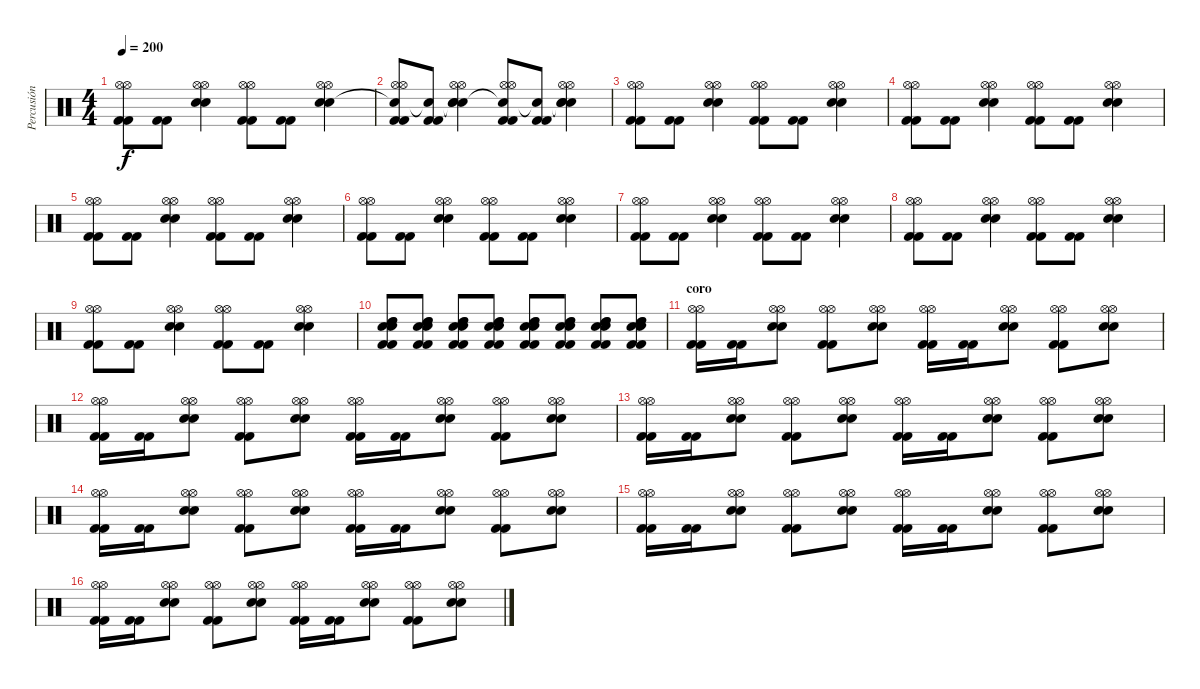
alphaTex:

\track ("Percusión" "Percusión") {instrument percussion}
\staff {score}
\articulation defaults
\ts (4 4)
\tempo 200
\clef neutral
\ks c
("Kick (hit) 2" "Kick (hit) 2" "Hi-Hat (open)" "Hi-Hat (open)").8{dy f} ("Kick (hit) 2" "Kick (hit) 2").8 ("Snare (hit) 2" "Snare (hit) 2" "Hi-Hat (open)" "Hi-Hat (open)").4 ("Kick (hit) 2" "Kick (hit) 2" "Hi-Hat (open)" "Hi-Hat (open)").8 ("Kick (hit) 2" "Kick (hit) 2").8 ("Snare (hit) 2" "Snare (hit) 2" "Hi-Hat (open)" "Hi-Hat (open)").4 |
("Snare (hit)"{t} "Kick (hit) 2" "Kick (hit) 2" "Hi-Hat (open)" "Hi-Hat (open)").8 ("Snare (hit)"{t} "Kick (hit) 2" "Kick (hit) 2").8 ("Snare (hit)"{t} "Snare (hit) 2" "Snare (hit) 2" "Hi-Hat (open)" "Hi-Hat (open)").4 ("Snare (hit)"{t} "Kick (hit) 2" "Kick (hit) 2" "Hi-Hat (open)" "Hi-Hat (open)").8 ("Snare (hit)"{t} "Kick (hit) 2" "Kick (hit) 2").8 ("Snare (hit)"{t} "Snare (hit) 2" "Snare (hit) 2" "Hi-Hat (open)" "Hi-Hat (open)").4 |
("Kick (hit) 2" "Kick (hit) 2" "Hi-Hat (open)" "Hi-Hat (open)").8 ("Kick (hit) 2" "Kick (hit) 2").8 ("Snare (hit) 2" "Snare (hit) 2" "Hi-Hat (open)" "Hi-Hat (open)").4 ("Kick (hit) 2" "Kick (hit) 2" "Hi-Hat (open)" "Hi-Hat (open)").8 ("Kick (hit) 2" "Kick (hit) 2").8 ("Snare (hit) 2" "Snare (hit) 2" "Hi-Hat (open)" "Hi-Hat (open)").4 |
("Kick (hit) 2" "Kick (hit) 2" "Hi-Hat (open)" "Hi-Hat (open)").8 ("Kick (hit) 2" "Kick (hit) 2").8 ("Snare (hit) 2" "Snare (hit) 2" "Hi-Hat (open)" "Hi-Hat (open)").4 ("Kick (hit) 2" "Kick (hit) 2" "Hi-Hat (open)" "Hi-Hat (open)").8 ("Kick (hit) 2" "Kick (hit) 2").8 ("Snare (hit) 2" "Snare (hit) 2" "Hi-Hat (open)" "Hi-Hat (open)").4 |
("Kick (hit) 2" "Kick (hit) 2" "Hi-Hat (open)" "Hi-Hat (open)").8 ("Kick (hit) 2" "Kick (hit) 2").8 ("Snare (hit) 2" "Snare (hit) 2" "Hi-Hat (open)" "Hi-Hat (open)").4 ("Kick (hit) 2" "Kick (hit) 2" "Hi-Hat (open)" "Hi-Hat (open)").8 ("Kick (hit) 2" "Kick (hit) 2").8 ("Snare (hit) 2" "Snare (hit) 2" "Hi-Hat (open)" "Hi-Hat (open)").4 |
("Kick (hit) 2" "Kick (hit) 2" "Hi-Hat (open)" "Hi-Hat (open)").8 ("Kick (hit) 2" "Kick (hit) 2").8 ("Snare (hit) 2" "Snare (hit) 2" "Hi-Hat (open)" "Hi-Hat (open)").4 ("Kick (hit) 2" "Kick (hit) 2" "Hi-Hat (open)" "Hi-Hat (open)").8 ("Kick (hit) 2" "Kick (hit) 2").8 ("Snare (hit) 2" "Snare (hit) 2" "Hi-Hat (open)" "Hi-Hat (open)").4 |
("Kick (hit) 2" "Kick (hit) 2" "Hi-Hat (open)" "Hi-Hat (open)").8 ("Kick (hit) 2" "Kick (hit) 2").8 ("Snare (hit) 2" "Snare (hit) 2" "Hi-Hat (open)" "Hi-Hat (open)").4 ("Kick (hit) 2" "Kick (hit) 2" "Hi-Hat (open)" "Hi-Hat (open)").8 ("Kick (hit) 2" "Kick (hit) 2").8 ("Snare (hit) 2" "Snare (hit) 2" "Hi-Hat (open)" "Hi-Hat (open)").4 |
("Kick (hit) 2" "Kick (hit) 2" "Hi-Hat (open)" "Hi-Hat (open)").8 ("Kick (hit) 2" "Kick (hit) 2").8 ("Snare (hit) 2" "Snare (hit) 2" "Hi-Hat (open)" "Hi-Hat (open)").4 ("Kick (hit) 2" "Kick (hit) 2" "Hi-Hat (open)" "Hi-Hat (open)").8 ("Kick (hit) 2" "Kick (hit) 2").8 ("Snare (hit) 2" "Snare (hit) 2" "Hi-Hat (open)" "Hi-Hat (open)").4 |
("Kick (hit) 2" "Kick (hit) 2" "Hi-Hat (open)" "Hi-Hat (open)").8 ("Kick (hit) 2" "Kick (hit) 2").8 ("Snare (hit) 2" "Snare (hit) 2" "Hi-Hat (open)" "Hi-Hat (open)").4 ("Kick (hit) 2" "Kick (hit) 2" "Hi-Hat (open)" "Hi-Hat (open)").8 ("Kick (hit) 2" "Kick (hit) 2").8 ("Snare (hit) 2" "Snare (hit) 2" "Hi-Hat (open)" "Hi-Hat (open)").4 |
("Snare (hit) 2" "Snare (hit) 2" "High Tom (hit)" "High Tom (hit)" "Kick (hit) 2" "Kick (hit) 2").8 ("Snare (hit) 2" "Snare (hit) 2" "High Tom (hit)" "High Tom (hit)" "Kick (hit) 2" "Kick (hit) 2").8 ("Snare (hit) 2" "Snare (hit) 2" "High Tom (hit)" "High Tom (hit)" "Kick (hit) 2" "Kick (hit) 2").8 ("Snare (hit) 2" "Snare (hit) 2" "High Tom (hit)" "High Tom (hit)" "Kick (hit) 2" "Kick (hit) 2").8 ("Snare (hit) 2" "Snare (hit) 2" "High Tom (hit)" "High Tom (hit)" "Kick (hit) 2" "Kick (hit) 2").8 ("Snare (hit) 2" "Snare (hit) 2" "High Tom (hit)" "High Tom (hit)" "Kick (hit) 2" "Kick (hit) 2").8 ("Snare (hit) 2" "Snare (hit) 2" "High Tom (hit)" "High Tom (hit)" "Kick (hit) 2" "Kick (hit) 2").8 ("Snare (hit) 2" "Snare (hit) 2" "High Tom (hit)" "High Tom (hit)" "Kick (hit) 2" "Kick (hit) 2").8 |
\section ("" "coro")
("Kick (hit) 2" "Kick (hit) 2" "Hi-Hat (open)" "Hi-Hat (open)").16 ("Kick (hit) 2" "Kick (hit) 2").16 ("Snare (hit) 2" "Snare (hit) 2" "Hi-Hat (open)" "Hi-Hat (open)").8 ("Kick (hit) 2" "Kick (hit) 2" "Hi-Hat (open)" "Hi-Hat (open)").8 ("Snare (hit) 2" "Snare (hit) 2" "Hi-Hat (open)" "Hi-Hat (open)").8 ("Kick (hit) 2" "Kick (hit) 2" "Hi-Hat (open)" "Hi-Hat (open)").16 ("Kick (hit) 2" "Kick (hit) 2").16 ("Snare (hit) 2" "Snare (hit) 2" "Hi-Hat (open)" "Hi-Hat (open)").8 ("Kick (hit) 2" "Kick (hit) 2" "Hi-Hat (open)" "Hi-Hat (open)").8 ("Snare (hit) 2" "Snare (hit) 2" "Hi-Hat (open)" "Hi-Hat (open)").8 |
("Kick (hit) 2" "Kick (hit) 2" "Hi-Hat (open)" "Hi-Hat (open)").16 ("Kick (hit) 2" "Kick (hit) 2").16 ("Snare (hit) 2" "Snare (hit) 2" "Hi-Hat (open)" "Hi-Hat (open)").8 ("Kick (hit) 2" "Kick (hit) 2" "Hi-Hat (open)" "Hi-Hat (open)").8 ("Snare (hit) 2" "Snare (hit) 2" "Hi-Hat (open)" "Hi-Hat (open)").8 ("Kick (hit) 2" "Kick (hit) 2" "Hi-Hat (open)" "Hi-Hat (open)").16 ("Kick (hit) 2" "Kick (hit) 2").16 ("Snare (hit) 2" "Snare (hit) 2" "Hi-Hat (open)" "Hi-Hat (open)").8 ("Kick (hit) 2" "Kick (hit) 2" "Hi-Hat (open)" "Hi-Hat (open)").8 ("Snare (hit) 2" "Snare (hit) 2" "Hi-Hat (open)" "Hi-Hat (open)").8 |
("Kick (hit) 2" "Kick (hit) 2" "Hi-Hat (open)" "Hi-Hat (open)").16 ("Kick (hit) 2" "Kick (hit) 2").16 ("Snare (hit) 2" "Snare (hit) 2" "Hi-Hat (open)" "Hi-Hat (open)").8 ("Kick (hit) 2" "Kick (hit) 2" "Hi-Hat (open)" "Hi-Hat (open)").8 ("Snare (hit) 2" "Snare (hit) 2" "Hi-Hat (open)" "Hi-Hat (open)").8 ("Kick (hit) 2" "Kick (hit) 2" "Hi-Hat (open)" "Hi-Hat (open)").16 ("Kick (hit) 2" "Kick (hit) 2").16 ("Snare (hit) 2" "Snare (hit) 2" "Hi-Hat (open)" "Hi-Hat (open)").8 ("Kick (hit) 2" "Kick (hit) 2" "Hi-Hat (open)" "Hi-Hat (open)").8 ("Snare (hit) 2" "Snare (hit) 2" "Hi-Hat (open)" "Hi-Hat (open)").8 |
("Kick (hit) 2" "Kick (hit) 2" "Hi-Hat (open)" "Hi-Hat (open)").16 ("Kick (hit) 2" "Kick (hit) 2").16 ("Snare (hit) 2" "Snare (hit) 2" "Hi-Hat (open)" "Hi-Hat (open)").8 ("Kick (hit) 2" "Kick (hit) 2" "Hi-Hat (open)" "Hi-Hat (open)").8 ("Snare (hit) 2" "Snare (hit) 2" "Hi-Hat (open)" "Hi-Hat (open)").8 ("Kick (hit) 2" "Kick (hit) 2" "Hi-Hat (open)" "Hi-Hat (open)").16 ("Kick (hit) 2" "Kick (hit) 2").16 ("Snare (hit) 2" "Snare (hit) 2" "Hi-Hat (open)" "Hi-Hat (open)").8 ("Kick (hit) 2" "Kick (hit) 2" "Hi-Hat (open)" "Hi-Hat (open)").8 ("Snare (hit) 2" "Snare (hit) 2" "Hi-Hat (open)" "Hi-Hat (open)").8 |
("Kick (hit) 2" "Kick (hit) 2" "Hi-Hat (open)" "Hi-Hat (open)").16 ("Kick (hit) 2" "Kick (hit) 2").16 ("Snare (hit) 2" "Snare (hit) 2" "Hi-Hat (open)" "Hi-Hat (open)").8 ("Kick (hit) 2" "Kick (hit) 2" "Hi-Hat (open)" "Hi-Hat (open)").8 ("Snare (hit) 2" "Snare (hit) 2" "Hi-Hat (open)" "Hi-Hat (open)").8 ("Kick (hit) 2" "Kick (hit) 2" "Hi-Hat (open)" "Hi-Hat (open)").16 ("Kick (hit) 2" "Kick (hit) 2").16 ("Snare (hit) 2" "Snare (hit) 2" "Hi-Hat (open)" "Hi-Hat (open)").8 ("Kick (hit) 2" "Kick (hit) 2" "Hi-Hat (open)" "Hi-Hat (open)").8 ("Snare (hit) 2" "Snare (hit) 2" "Hi-Hat (open)" "Hi-Hat (open)").8 |
("Kick (hit) 2" "Kick (hit) 2" "Hi-Hat (open)" "Hi-Hat (open)").16 ("Kick (hit) 2" "Kick (hit) 2").16 ("Snare (hit) 2" "Snare (hit) 2" "Hi-Hat (open)" "Hi-Hat (open)").8 ("Kick (hit) 2" "Kick (hit) 2" "Hi-Hat (open)" "Hi-Hat (open)").8 ("Snare (hit) 2" "Snare (hit) 2" "Hi-Hat (open)" "Hi-Hat (open)").8 ("Kick (hit) 2" "Kick (hit) 2" "Hi-Hat (open)" "Hi-Hat (open)").16 ("Kick (hit) 2" "Kick (hit) 2").16 ("Snare (hit) 2" "Snare (hit) 2" "Hi-Hat (open)" "Hi-Hat (open)").8 ("Kick (hit) 2" "Kick (hit) 2" "Hi-Hat (open)" "Hi-Hat (open)").8 ("Snare (hit) 2" "Snare (hit) 2" "Hi-Hat (open)" "Hi-Hat (open)").8
